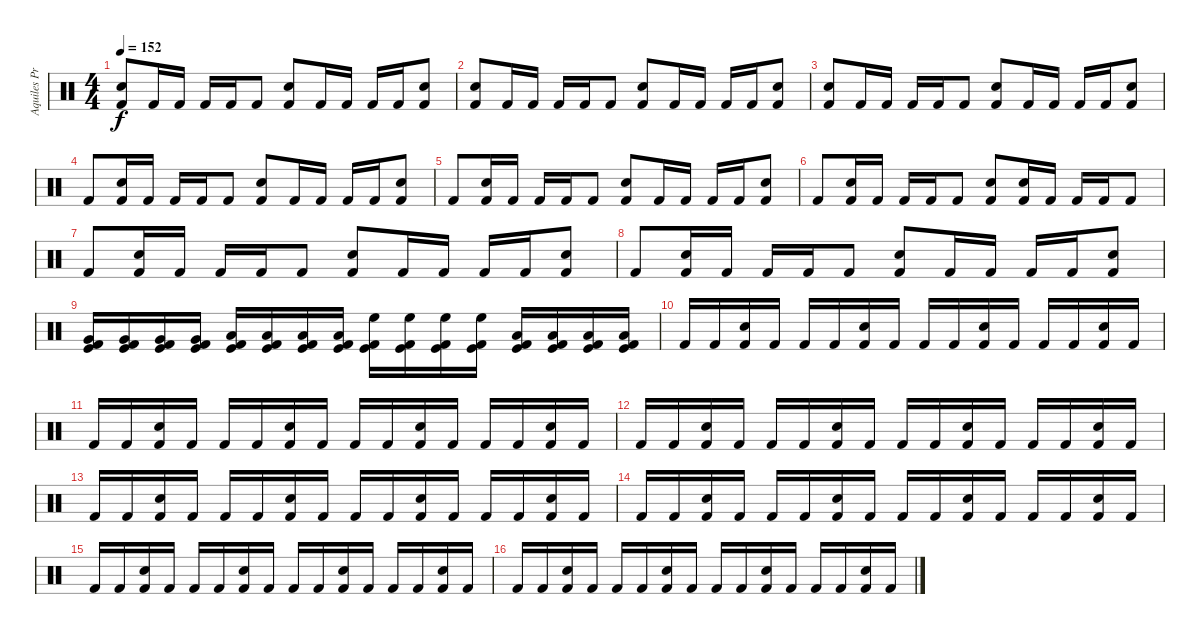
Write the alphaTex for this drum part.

\track ("Aquiles Priester" "Aquiles Pr") {instrument percussion}
\staff {score}
\articulation defaults
\ts (4 4)
\tempo 152
\clef neutral
\ks c
("Electric Snare (hit)" "Kick (hit) 2").8{dy f} "Kick (hit) 2".16 "Kick (hit) 2".16 "Kick (hit) 2".16 "Kick (hit) 2".16 "Kick (hit) 2".8 ("Electric Snare (hit)" "Kick (hit) 2").8 "Kick (hit) 2".16 "Kick (hit) 2".16 "Kick (hit) 2".16 "Kick (hit) 2".16 ("Electric Snare (hit)" "Kick (hit) 2").8 |
("Electric Snare (hit)" "Kick (hit) 2").8 "Kick (hit) 2".16 "Kick (hit) 2".16 "Kick (hit) 2".16 "Kick (hit) 2".16 "Kick (hit) 2".8 ("Electric Snare (hit)" "Kick (hit) 2").8 "Kick (hit) 2".16 "Kick (hit) 2".16 "Kick (hit) 2".16 "Kick (hit) 2".16 ("Electric Snare (hit)" "Kick (hit) 2").8 |
("Electric Snare (hit)" "Kick (hit) 2").8 "Kick (hit) 2".16 "Kick (hit) 2".16 "Kick (hit) 2".16 "Kick (hit) 2".16 "Kick (hit) 2".8 ("Electric Snare (hit)" "Kick (hit) 2").8 "Kick (hit) 2".16 "Kick (hit) 2".16 "Kick (hit) 2".16 "Kick (hit) 2".16 ("Electric Snare (hit)" "Kick (hit) 2").8 |
"Kick (hit) 2".8 ("Electric Snare (hit)" "Kick (hit) 2").16 "Kick (hit) 2".16 "Kick (hit) 2".16 "Kick (hit) 2".16 "Kick (hit) 2".8 ("Electric Snare (hit)" "Kick (hit) 2").8 "Kick (hit) 2".16 "Kick (hit) 2".16 "Kick (hit) 2".16 "Kick (hit) 2".16 ("Electric Snare (hit)" "Kick (hit) 2").8 |
"Kick (hit) 2".8 ("Electric Snare (hit)" "Kick (hit) 2").16 "Kick (hit) 2".16 "Kick (hit) 2".16 "Kick (hit) 2".16 "Kick (hit) 2".8 ("Electric Snare (hit)" "Kick (hit) 2").8 "Kick (hit) 2".16 "Kick (hit) 2".16 "Kick (hit) 2".16 "Kick (hit) 2".16 ("Electric Snare (hit)" "Kick (hit) 2").8 |
"Kick (hit) 2".8 ("Electric Snare (hit)" "Kick (hit) 2").16 "Kick (hit) 2".16 "Kick (hit) 2".16 "Kick (hit) 2".16 "Kick (hit) 2".8 ("Electric Snare (hit)" "Kick (hit) 2").8 ("Electric Snare (hit)" "Kick (hit) 2").16 "Kick (hit) 2".16 "Kick (hit) 2".16 "Kick (hit) 2".16 "Kick (hit) 2".8 |
"Kick (hit) 2".8 ("Electric Snare (hit)" "Kick (hit) 2").16 "Kick (hit) 2".16 "Kick (hit) 2".16 "Kick (hit) 2".16 "Kick (hit) 2".8 ("Electric Snare (hit)" "Kick (hit) 2").8 "Kick (hit) 2".16 "Kick (hit) 2".16 "Kick (hit) 2".16 "Kick (hit) 2".16 ("Electric Snare (hit)" "Kick (hit) 2").8 |
"Kick (hit) 2".8 ("Electric Snare (hit)" "Kick (hit) 2").16 "Kick (hit) 2".16 "Kick (hit) 2".16 "Kick (hit) 2".16 "Kick (hit) 2".8 ("Electric Snare (hit)" "Kick (hit) 2").8 "Kick (hit) 2".16 "Kick (hit) 2".16 "Kick (hit) 2".16 "Kick (hit) 2".16 ("Electric Snare (hit)" "Kick (hit) 2").8 |
("Very Low Tom (hit)" "Kick (hit)" "Kick (hit) 2").16 ("Very Low Tom (hit)" "Kick (hit)" "Kick (hit) 2").16 ("Very Low Tom (hit)" "Kick (hit)" "Kick (hit) 2").16 ("Very Low Tom (hit)" "Kick (hit)" "Kick (hit) 2").16 ("Low Floor Tom (hit)" "Kick (hit)" "Kick (hit) 2").16 ("Low Floor Tom (hit)" "Kick (hit)" "Kick (hit) 2").16 ("Low Floor Tom (hit)" "Kick (hit)" "Kick (hit) 2").16 ("Low Floor Tom (hit)" "Kick (hit)" "Kick (hit) 2").16 ("High Floor Tom (hit)" "Kick (hit)" "Kick (hit) 2").16 ("High Floor Tom (hit)" "Kick (hit)" "Kick (hit) 2").16 ("High Floor Tom (hit)" "Kick (hit)" "Kick (hit) 2").16 ("High Floor Tom (hit)" "Kick (hit)" "Kick (hit) 2").16 ("Low Tom (hit)" "Kick (hit)" "Kick (hit) 2").16 ("Low Tom (hit)" "Kick (hit)" "Kick (hit) 2").16 ("Low Tom (hit)" "Kick (hit)" "Kick (hit) 2").16 ("Low Tom (hit)" "Kick (hit)" "Kick (hit) 2").16 |
"Kick (hit) 2".16 "Kick (hit) 2".16 ("Electric Snare (hit)" "Kick (hit) 2").16 "Kick (hit) 2".16 "Kick (hit) 2".16 "Kick (hit) 2".16 ("Electric Snare (hit)" "Kick (hit) 2").16 "Kick (hit) 2".16 "Kick (hit) 2".16 "Kick (hit) 2".16 ("Electric Snare (hit)" "Kick (hit) 2").16 "Kick (hit) 2".16 "Kick (hit) 2".16 "Kick (hit) 2".16 ("Electric Snare (hit)" "Kick (hit) 2").16 "Kick (hit) 2".16 |
"Kick (hit) 2".16 "Kick (hit) 2".16 ("Electric Snare (hit)" "Kick (hit) 2").16 "Kick (hit) 2".16 "Kick (hit) 2".16 "Kick (hit) 2".16 ("Electric Snare (hit)" "Kick (hit) 2").16 "Kick (hit) 2".16 "Kick (hit) 2".16 "Kick (hit) 2".16 ("Electric Snare (hit)" "Kick (hit) 2").16 "Kick (hit) 2".16 "Kick (hit) 2".16 "Kick (hit) 2".16 ("Electric Snare (hit)" "Kick (hit) 2").16 "Kick (hit) 2".16 |
"Kick (hit) 2".16 "Kick (hit) 2".16 ("Electric Snare (hit)" "Kick (hit) 2").16 "Kick (hit) 2".16 "Kick (hit) 2".16 "Kick (hit) 2".16 ("Electric Snare (hit)" "Kick (hit) 2").16 "Kick (hit) 2".16 "Kick (hit) 2".16 "Kick (hit) 2".16 ("Electric Snare (hit)" "Kick (hit) 2").16 "Kick (hit) 2".16 "Kick (hit) 2".16 "Kick (hit) 2".16 ("Electric Snare (hit)" "Kick (hit) 2").16 "Kick (hit) 2".16 |
"Kick (hit) 2".16 "Kick (hit) 2".16 ("Electric Snare (hit)" "Kick (hit) 2").16 "Kick (hit) 2".16 "Kick (hit) 2".16 "Kick (hit) 2".16 ("Electric Snare (hit)" "Kick (hit) 2").16 "Kick (hit) 2".16 "Kick (hit) 2".16 "Kick (hit) 2".16 ("Electric Snare (hit)" "Kick (hit) 2").16 "Kick (hit) 2".16 "Kick (hit) 2".16 "Kick (hit) 2".16 ("Electric Snare (hit)" "Kick (hit) 2").16 "Kick (hit) 2".16 |
"Kick (hit) 2".16 "Kick (hit) 2".16 ("Electric Snare (hit)" "Kick (hit) 2").16 "Kick (hit) 2".16 "Kick (hit) 2".16 "Kick (hit) 2".16 ("Electric Snare (hit)" "Kick (hit) 2").16 "Kick (hit) 2".16 "Kick (hit) 2".16 "Kick (hit) 2".16 ("Electric Snare (hit)" "Kick (hit) 2").16 "Kick (hit) 2".16 "Kick (hit) 2".16 "Kick (hit) 2".16 ("Electric Snare (hit)" "Kick (hit) 2").16 "Kick (hit) 2".16 |
"Kick (hit) 2".16 "Kick (hit) 2".16 ("Electric Snare (hit)" "Kick (hit) 2").16 "Kick (hit) 2".16 "Kick (hit) 2".16 "Kick (hit) 2".16 ("Electric Snare (hit)" "Kick (hit) 2").16 "Kick (hit) 2".16 "Kick (hit) 2".16 "Kick (hit) 2".16 ("Electric Snare (hit)" "Kick (hit) 2").16 "Kick (hit) 2".16 "Kick (hit) 2".16 "Kick (hit) 2".16 ("Electric Snare (hit)" "Kick (hit) 2").16 "Kick (hit) 2".16 |
"Kick (hit) 2".16 "Kick (hit) 2".16 ("Electric Snare (hit)" "Kick (hit) 2").16 "Kick (hit) 2".16 "Kick (hit) 2".16 "Kick (hit) 2".16 ("Electric Snare (hit)" "Kick (hit) 2").16 "Kick (hit) 2".16 "Kick (hit) 2".16 "Kick (hit) 2".16 ("Electric Snare (hit)" "Kick (hit) 2").16 "Kick (hit) 2".16 "Kick (hit) 2".16 "Kick (hit) 2".16 ("Electric Snare (hit)" "Kick (hit) 2").16 "Kick (hit) 2".16
